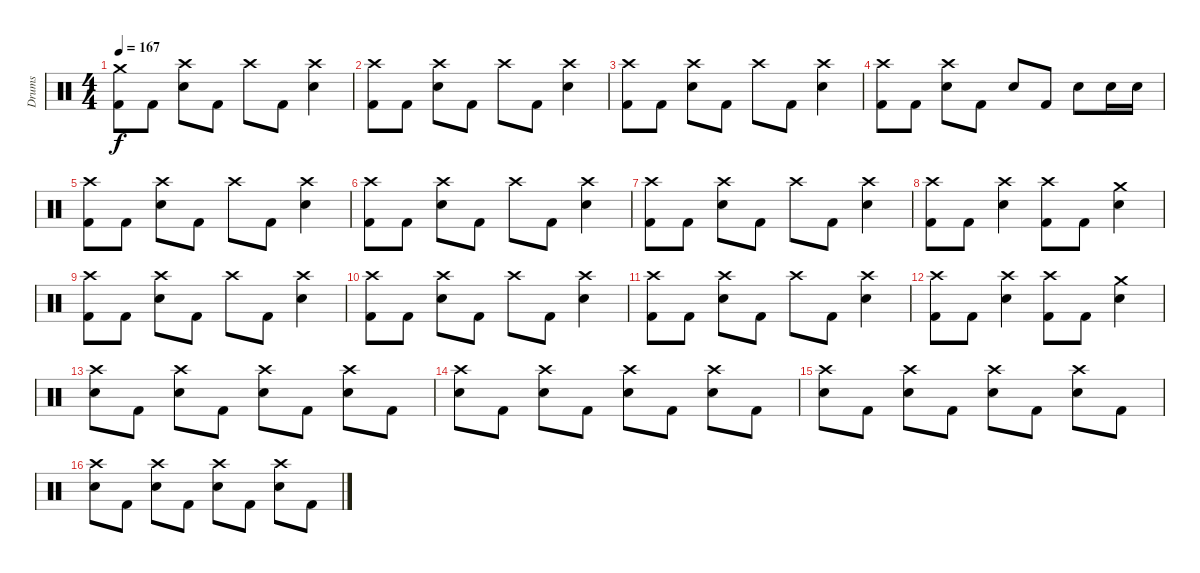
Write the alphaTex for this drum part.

\track ("Drums" "Drums") {instrument percussion}
\staff {score}
\articulation defaults
\ts (4 4)
\tempo 167
\clef neutral
\ks c
("Crash medium (hit)" "Kick (hit) 2").8{dy f} "Kick (hit) 2".8 ("Crash high (hit)" "Snare (hit) 2").8 "Kick (hit) 2".8 "Crash high (hit)".8 "Kick (hit) 2".8 ("Crash high (hit)" "Snare (hit) 2").4 |
("Crash high (hit)" "Kick (hit) 2").8 "Kick (hit) 2".8 ("Crash high (hit)" "Snare (hit) 2").8 "Kick (hit) 2".8 "Crash high (hit)".8 "Kick (hit) 2".8 ("Crash high (hit)" "Snare (hit) 2").4 |
("Crash high (hit)" "Kick (hit) 2").8 "Kick (hit) 2".8 ("Crash high (hit)" "Snare (hit) 2").8 "Kick (hit) 2".8 "Crash high (hit)".8 "Kick (hit) 2".8 ("Crash high (hit)" "Snare (hit) 2").4 |
("Crash high (hit)" "Kick (hit) 2").8 "Kick (hit) 2".8 ("Crash high (hit)" "Snare (hit) 2").8 "Kick (hit) 2".8 "Snare (hit) 2".8 "Kick (hit) 2".8 "Snare (hit) 2".8 "Snare (hit) 2".16 "Snare (hit) 2".16 |
("Crash high (hit)" "Kick (hit) 2").8 "Kick (hit) 2".8 ("Crash high (hit)" "Snare (hit) 2").8 "Kick (hit) 2".8 "Crash high (hit)".8 "Kick (hit) 2".8 ("Crash high (hit)" "Snare (hit) 2").4 |
("Crash high (hit)" "Kick (hit) 2").8 "Kick (hit) 2".8 ("Crash high (hit)" "Snare (hit) 2").8 "Kick (hit) 2".8 "Crash high (hit)".8 "Kick (hit) 2".8 ("Crash high (hit)" "Snare (hit) 2").4 |
("Crash high (hit)" "Kick (hit) 2").8 "Kick (hit) 2".8 ("Crash high (hit)" "Snare (hit) 2").8 "Kick (hit) 2".8 "Crash high (hit)".8 "Kick (hit) 2".8 ("Crash high (hit)" "Snare (hit) 2").4 |
("Crash high (hit)" "Kick (hit) 2").8 "Kick (hit) 2".8 ("Crash high (hit)" "Snare (hit) 2").4 ("Crash high (hit)" "Kick (hit) 2").8 "Kick (hit) 2".8 ("Crash medium (hit)" "Snare (hit) 2").4 |
("Crash high (hit)" "Kick (hit) 2").8 "Kick (hit) 2".8 ("Crash high (hit)" "Snare (hit) 2").8 "Kick (hit) 2".8 "Crash high (hit)".8 "Kick (hit) 2".8 ("Crash high (hit)" "Snare (hit) 2").4 |
("Crash high (hit)" "Kick (hit) 2").8 "Kick (hit) 2".8 ("Crash high (hit)" "Snare (hit) 2").8 "Kick (hit) 2".8 "Crash high (hit)".8 "Kick (hit) 2".8 ("Crash high (hit)" "Snare (hit) 2").4 |
("Crash high (hit)" "Kick (hit) 2").8 "Kick (hit) 2".8 ("Crash high (hit)" "Snare (hit) 2").8 "Kick (hit) 2".8 "Crash high (hit)".8 "Kick (hit) 2".8 ("Crash high (hit)" "Snare (hit) 2").4 |
("Crash high (hit)" "Kick (hit) 2").8 "Kick (hit) 2".8 ("Crash high (hit)" "Snare (hit) 2").4 ("Crash high (hit)" "Kick (hit) 2").8 "Kick (hit) 2".8 ("Crash medium (hit)" "Snare (hit) 2").4 |
("Crash high (hit)" "Snare (hit) 2").8 "Kick (hit) 2".8 ("Crash high (hit)" "Snare (hit) 2").8 "Kick (hit) 2".8 ("Crash high (hit)" "Snare (hit) 2").8 "Kick (hit) 2".8 ("Crash high (hit)" "Snare (hit) 2").8 "Kick (hit) 2".8 |
("Crash high (hit)" "Snare (hit) 2").8 "Kick (hit) 2".8 ("Crash high (hit)" "Snare (hit) 2").8 "Kick (hit) 2".8 ("Crash high (hit)" "Snare (hit) 2").8 "Kick (hit) 2".8 ("Crash high (hit)" "Snare (hit) 2").8 "Kick (hit) 2".8 |
("Crash high (hit)" "Snare (hit) 2").8 "Kick (hit) 2".8 ("Crash high (hit)" "Snare (hit) 2").8 "Kick (hit) 2".8 ("Crash high (hit)" "Snare (hit) 2").8 "Kick (hit) 2".8 ("Crash high (hit)" "Snare (hit) 2").8 "Kick (hit) 2".8 |
("Crash high (hit)" "Snare (hit) 2").8 "Kick (hit) 2".8 ("Crash high (hit)" "Snare (hit) 2").8 "Kick (hit) 2".8 ("Crash high (hit)" "Snare (hit) 2").8 "Kick (hit) 2".8 ("Crash high (hit)" "Snare (hit) 2").8 "Kick (hit) 2".8
